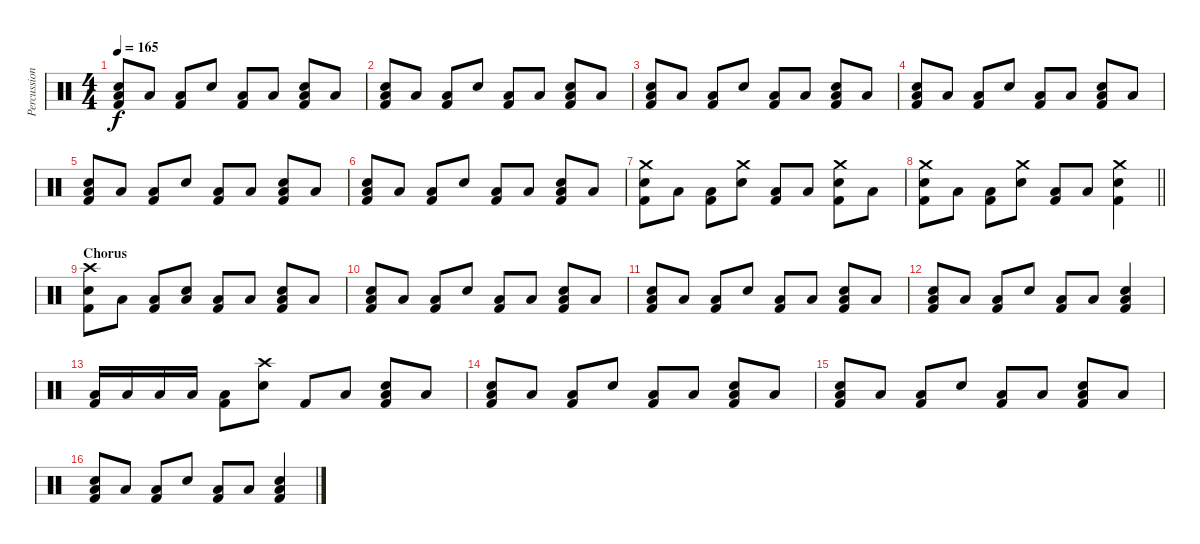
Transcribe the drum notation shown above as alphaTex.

\track ("Percussion" "Percussion") {instrument percussion}
\staff {score}
\articulation defaults
\ts (4 4)
\tempo 165
\clef neutral
\ks c
("Electric Snare (hit)" "Low Floor Tom (hit)" "Kick (hit) 2").8{dy f} "Low Floor Tom (hit)".8 ("Low Floor Tom (hit)" "Kick (hit) 2").8 "Electric Snare (hit)".8 ("Low Floor Tom (hit)" "Kick (hit) 2").8 "Low Floor Tom (hit)".8 ("Electric Snare (hit)" "Low Floor Tom (hit)" "Kick (hit) 2").8 "Low Floor Tom (hit)".8 |
("Electric Snare (hit)" "Low Floor Tom (hit)" "Kick (hit) 2").8 "Low Floor Tom (hit)".8 ("Low Floor Tom (hit)" "Kick (hit) 2").8 "Electric Snare (hit)".8 ("Low Floor Tom (hit)" "Kick (hit) 2").8 "Low Floor Tom (hit)".8 ("Electric Snare (hit)" "Low Floor Tom (hit)" "Kick (hit) 2").8 "Low Floor Tom (hit)".8 |
("Electric Snare (hit)" "Low Floor Tom (hit)" "Kick (hit) 2").8 "Low Floor Tom (hit)".8 ("Low Floor Tom (hit)" "Kick (hit) 2").8 "Electric Snare (hit)".8 ("Low Floor Tom (hit)" "Kick (hit) 2").8 "Low Floor Tom (hit)".8 ("Electric Snare (hit)" "Low Floor Tom (hit)" "Kick (hit) 2").8 "Low Floor Tom (hit)".8 |
("Electric Snare (hit)" "Low Floor Tom (hit)" "Kick (hit) 2").8 "Low Floor Tom (hit)".8 ("Low Floor Tom (hit)" "Kick (hit) 2").8 "Electric Snare (hit)".8 ("Low Floor Tom (hit)" "Kick (hit) 2").8 "Low Floor Tom (hit)".8 ("Electric Snare (hit)" "Low Floor Tom (hit)" "Kick (hit) 2").8 "Low Floor Tom (hit)".8 |
("Electric Snare (hit)" "Low Floor Tom (hit)" "Kick (hit) 2").8 "Low Floor Tom (hit)".8 ("Low Floor Tom (hit)" "Kick (hit) 2").8 "Electric Snare (hit)".8 ("Low Floor Tom (hit)" "Kick (hit) 2").8 "Low Floor Tom (hit)".8 ("Electric Snare (hit)" "Low Floor Tom (hit)" "Kick (hit) 2").8 "Low Floor Tom (hit)".8 |
("Electric Snare (hit)" "Low Floor Tom (hit)" "Kick (hit) 2").8 "Low Floor Tom (hit)".8 ("Low Floor Tom (hit)" "Kick (hit) 2").8 "Electric Snare (hit)".8 ("Low Floor Tom (hit)" "Kick (hit) 2").8 "Low Floor Tom (hit)".8 ("Electric Snare (hit)" "Low Floor Tom (hit)" "Kick (hit) 2").8 "Low Floor Tom (hit)".8 |
("Crash medium (hit)" "Electric Snare (hit)" "Kick (hit) 2").8 "Low Tom (hit)".8 ("Low Tom (hit)" "Kick (hit) 2").8 ("Crash medium (hit)" "Electric Snare (hit)").8 ("Low Tom (hit)" "Kick (hit) 2").8 "Low Tom (hit)".8 ("Crash medium (hit)" "Electric Snare (hit)" "Kick (hit) 2").8 "Low Tom (hit)".8 |
\barLineRight lightlight
("Crash medium (hit)" "Electric Snare (hit)" "Kick (hit) 2").8 "Low Tom (hit)".8 ("Low Tom (hit)" "Kick (hit) 2").8 ("Crash medium (hit)" "Electric Snare (hit)").8 ("Low Tom (hit)" "Kick (hit) 2").8 "Low Tom (hit)".8 ("Crash medium (hit)" "Electric Snare (hit)" "Kick (hit) 2").4 |
\section ("" "Chorus")
("Crash high (hit)" "Electric Snare (hit)" "Kick (hit) 2").8 "Low Floor Tom (hit)".8 ("Low Floor Tom (hit)" "Kick (hit) 2").8 ("Electric Snare (hit)" "Low Floor Tom (hit)").8 ("Low Floor Tom (hit)" "Kick (hit) 2").8 "Low Floor Tom (hit)".8 ("Electric Snare (hit)" "Low Floor Tom (hit)" "Kick (hit) 2").8 "Low Floor Tom (hit)".8 |
("Electric Snare (hit)" "Low Floor Tom (hit)" "Kick (hit) 2").8 "Low Floor Tom (hit)".8 ("Low Floor Tom (hit)" "Kick (hit) 2").8 "Electric Snare (hit)".8 ("Low Floor Tom (hit)" "Kick (hit) 2").8 "Low Floor Tom (hit)".8 ("Electric Snare (hit)" "Low Floor Tom (hit)" "Kick (hit) 2").8 "Low Floor Tom (hit)".8 |
("Electric Snare (hit)" "Low Floor Tom (hit)" "Kick (hit) 2").8 "Low Floor Tom (hit)".8 ("Low Floor Tom (hit)" "Kick (hit) 2").8 "Electric Snare (hit)".8 ("Low Floor Tom (hit)" "Kick (hit) 2").8 "Low Floor Tom (hit)".8 ("Electric Snare (hit)" "Low Floor Tom (hit)" "Kick (hit) 2").8 "Low Floor Tom (hit)".8 |
("Electric Snare (hit)" "Low Floor Tom (hit)" "Kick (hit) 2").8 "Low Floor Tom (hit)".8 ("Low Floor Tom (hit)" "Kick (hit) 2").8 "Electric Snare (hit)".8 ("Low Floor Tom (hit)" "Kick (hit) 2").8 "Low Floor Tom (hit)".8 ("Electric Snare (hit)" "Low Floor Tom (hit)" "Kick (hit) 2").4 |
("Low Tom (hit)" "Kick (hit) 2").16 "Low Tom (hit)".16 "Low Tom (hit)".16 "Low Tom (hit)".16 ("Low Tom (hit)" "Kick (hit) 2").8 ("Crash high (hit)" "Electric Snare (hit)").8 "Kick (hit) 2".8 "Low Floor Tom (hit)".8 ("Electric Snare (hit)" "Low Floor Tom (hit)" "Kick (hit) 2").8 "Low Floor Tom (hit)".8 |
("Electric Snare (hit)" "Low Floor Tom (hit)" "Kick (hit) 2").8 "Low Floor Tom (hit)".8 ("Low Floor Tom (hit)" "Kick (hit) 2").8 "Electric Snare (hit)".8 ("Low Floor Tom (hit)" "Kick (hit) 2").8 "Low Floor Tom (hit)".8 ("Electric Snare (hit)" "Low Floor Tom (hit)" "Kick (hit) 2").8 "Low Floor Tom (hit)".8 |
("Electric Snare (hit)" "Low Floor Tom (hit)" "Kick (hit) 2").8 "Low Floor Tom (hit)".8 ("Low Floor Tom (hit)" "Kick (hit) 2").8 "Electric Snare (hit)".8 ("Low Floor Tom (hit)" "Kick (hit) 2").8 "Low Floor Tom (hit)".8 ("Electric Snare (hit)" "Low Floor Tom (hit)" "Kick (hit) 2").8 "Low Floor Tom (hit)".8 |
("Electric Snare (hit)" "Low Floor Tom (hit)" "Kick (hit) 2").8 "Low Floor Tom (hit)".8 ("Low Floor Tom (hit)" "Kick (hit) 2").8 "Electric Snare (hit)".8 ("Low Floor Tom (hit)" "Kick (hit) 2").8 "Low Floor Tom (hit)".8 ("Electric Snare (hit)" "Low Floor Tom (hit)" "Kick (hit) 2").4
